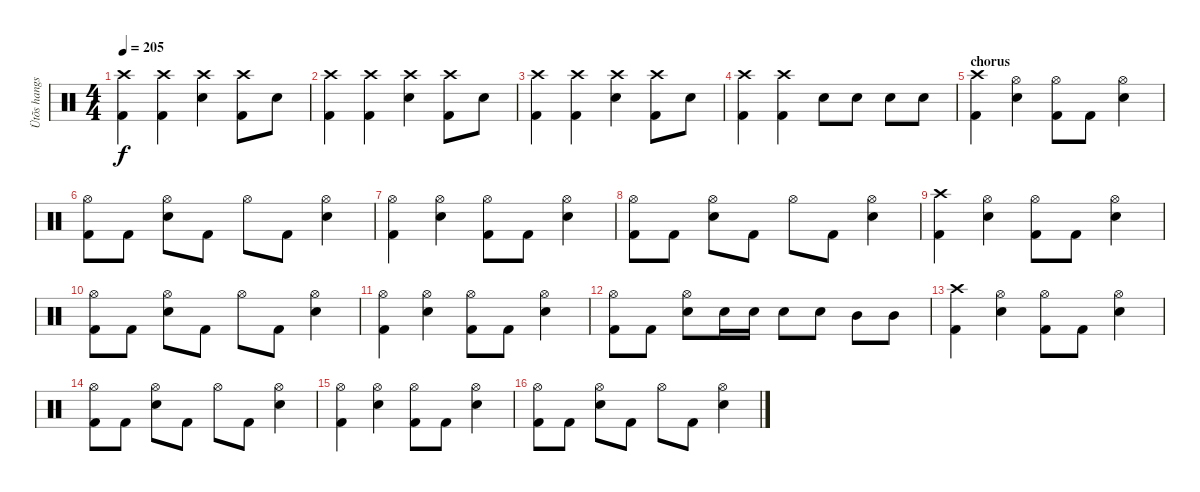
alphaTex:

\track ("Ütõs hangszer" "Ütõs hangs") {instrument percussion}
\staff {score}
\articulation defaults
\ts (4 4)
\tempo 205
\clef neutral
\ks c
("Crash high (hit)" "Kick (hit) 2").4{dy f} ("Crash high (hit)" "Kick (hit) 2").4 ("Crash high (hit)" "Snare (hit) 2").4 ("Crash high (hit)" "Kick (hit) 2").8 "Snare (hit) 2".8 |
("Crash high (hit)" "Kick (hit) 2").4 ("Crash high (hit)" "Kick (hit) 2").4 ("Crash high (hit)" "Snare (hit) 2").4 ("Crash high (hit)" "Kick (hit) 2").8 "Snare (hit) 2".8 |
("Crash high (hit)" "Kick (hit) 2").4 ("Crash high (hit)" "Kick (hit) 2").4 ("Crash high (hit)" "Snare (hit) 2").4 ("Crash high (hit)" "Kick (hit) 2").8 "Snare (hit) 2".8 |
("Crash high (hit)" "Kick (hit) 2").4 ("Crash high (hit)" "Kick (hit) 2").4 "Snare (hit) 2".8 "Snare (hit) 2".8 "Snare (hit) 2".8 "Snare (hit) 2".8 |
\section ("" "chorus")
("Crash high (hit)" "Kick (hit) 2").4 ("Hi-Hat (open)" "Snare (hit) 2").4 ("Hi-Hat (open)" "Kick (hit) 2").8 "Kick (hit) 2".8 ("Hi-Hat (open)" "Snare (hit) 2").4 |
("Hi-Hat (open)" "Kick (hit) 2").8 "Kick (hit) 2".8 ("Hi-Hat (open)" "Snare (hit) 2").8 "Kick (hit) 2".8 "Hi-Hat (open)".8 "Kick (hit) 2".8 ("Hi-Hat (open)" "Snare (hit) 2").4 |
("Hi-Hat (open)" "Kick (hit) 2").4 ("Hi-Hat (open)" "Snare (hit) 2").4 ("Hi-Hat (open)" "Kick (hit) 2").8 "Kick (hit) 2".8 ("Hi-Hat (open)" "Snare (hit) 2").4 |
("Hi-Hat (open)" "Kick (hit) 2").8 "Kick (hit) 2".8 ("Hi-Hat (open)" "Snare (hit) 2").8 "Kick (hit) 2".8 "Hi-Hat (open)".8 "Kick (hit) 2".8 ("Hi-Hat (open)" "Snare (hit) 2").4 |
("Crash high (hit)" "Kick (hit) 2").4 ("Hi-Hat (open)" "Snare (hit) 2").4 ("Hi-Hat (open)" "Kick (hit) 2").8 "Kick (hit) 2".8 ("Hi-Hat (open)" "Snare (hit) 2").4 |
("Hi-Hat (open)" "Kick (hit) 2").8 "Kick (hit) 2".8 ("Hi-Hat (open)" "Snare (hit) 2").8 "Kick (hit) 2".8 "Hi-Hat (open)".8 "Kick (hit) 2".8 ("Hi-Hat (open)" "Snare (hit) 2").4 |
("Hi-Hat (open)" "Kick (hit) 2").4 ("Hi-Hat (open)" "Snare (hit) 2").4 ("Hi-Hat (open)" "Kick (hit) 2").8 "Kick (hit) 2".8 ("Hi-Hat (open)" "Snare (hit) 2").4 |
("Hi-Hat (open)" "Kick (hit) 2").8 "Kick (hit) 2".8 ("Hi-Hat (open)" "Snare (hit) 2").8 "Snare (hit) 2".16 "Snare (hit) 2".16 "Snare (hit) 2".8 "Snare (hit) 2".8 "Mid Tom (hit)".8 "Mid Tom (hit)".8 |
("Crash high (hit)" "Kick (hit) 2").4 ("Hi-Hat (open)" "Snare (hit) 2").4 ("Hi-Hat (open)" "Kick (hit) 2").8 "Kick (hit) 2".8 ("Hi-Hat (open)" "Snare (hit) 2").4 |
("Hi-Hat (open)" "Kick (hit) 2").8 "Kick (hit) 2".8 ("Hi-Hat (open)" "Snare (hit) 2").8 "Kick (hit) 2".8 "Hi-Hat (open)".8 "Kick (hit) 2".8 ("Hi-Hat (open)" "Snare (hit) 2").4 |
("Hi-Hat (open)" "Kick (hit) 2").4 ("Hi-Hat (open)" "Snare (hit) 2").4 ("Hi-Hat (open)" "Kick (hit) 2").8 "Kick (hit) 2".8 ("Hi-Hat (open)" "Snare (hit) 2").4 |
("Hi-Hat (open)" "Kick (hit) 2").8 "Kick (hit) 2".8 ("Hi-Hat (open)" "Snare (hit) 2").8 "Kick (hit) 2".8 "Hi-Hat (open)".8 "Kick (hit) 2".8 ("Hi-Hat (open)" "Snare (hit) 2").4
